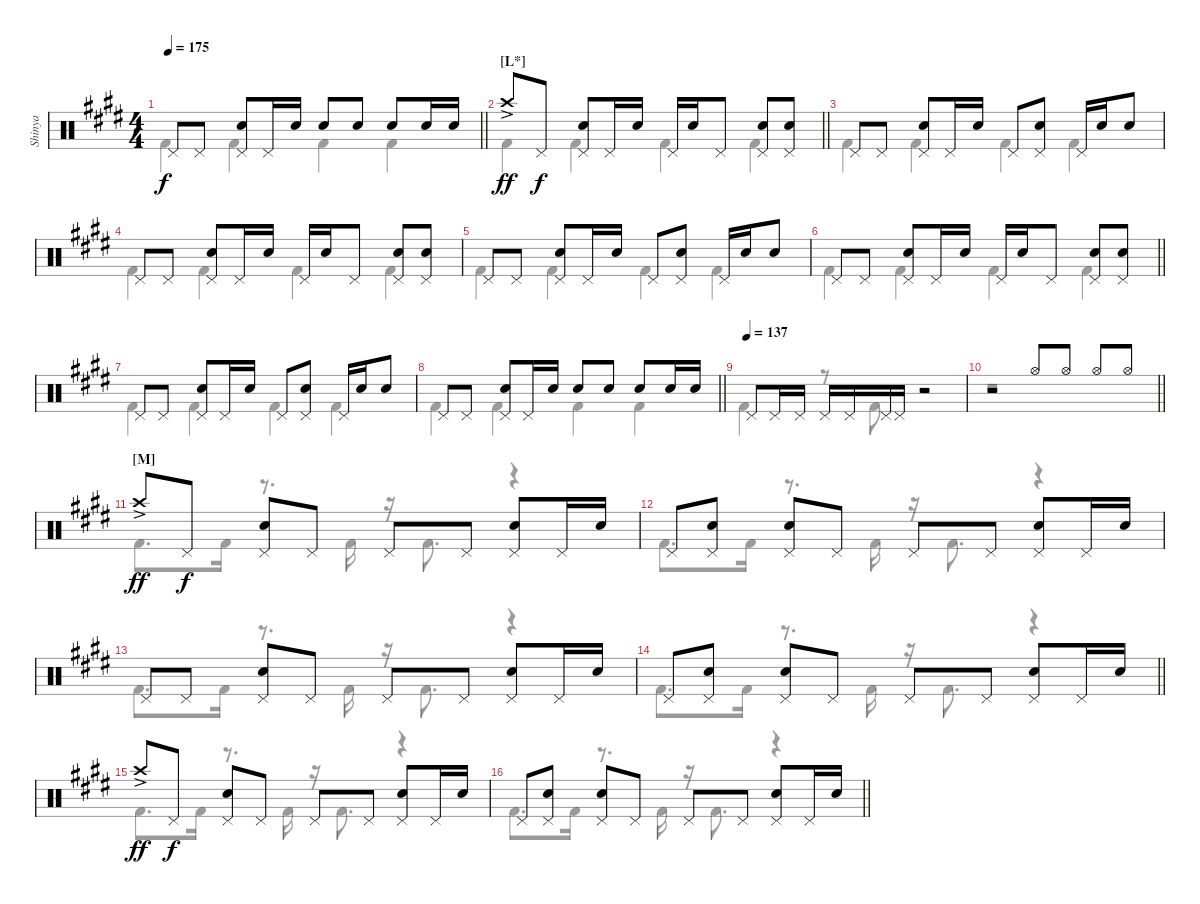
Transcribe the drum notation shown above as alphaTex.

\track ("Shinya" "Shinya") {instrument percussion}
\staff {score}
\articulation defaults
\voice
\ts (4 4)
\tempo 175
\clef neutral
\barLineRight lightlight
\ks c#minor "Pedal Hi-Hat (hit)".8{dy f} "Pedal Hi-Hat (hit)".8
("Pedal Hi-Hat (hit)" "Snare (hit) 2").8 "Pedal Hi-Hat (hit)".16 "Snare (hit) 2".16 "Snare (hit) 2".8 "Snare (hit) 2".8 "Snare (hit) 2".8 "Snare (hit) 2".16 "Snare (hit) 2".16 |
\section ("" "[L*]")
\barLineRight lightlight "Crash high (hit)"{ac}.8{dy ff} "Pedal Hi-Hat (hit)".8{dy f}
("Pedal Hi-Hat (hit)" "Snare (hit) 2").8 "Pedal Hi-Hat (hit)".16 "Snare (hit) 2".16 "Pedal Hi-Hat (hit)".16 "Snare (hit) 2".16 "Pedal Hi-Hat (hit)".8 ("Pedal Hi-Hat (hit)" "Snare (hit) 2").8 ("Pedal Hi-Hat (hit)" "Snare (hit) 2").8 |
"Pedal Hi-Hat (hit)".8 "Pedal Hi-Hat (hit)".8 ("Pedal Hi-Hat (hit)" "Snare (hit) 2").8 "Pedal Hi-Hat (hit)".16 "Snare (hit) 2".16 "Pedal Hi-Hat (hit)".8 ("Pedal Hi-Hat (hit)" "Snare (hit) 2").8 "Pedal Hi-Hat (hit)".16 "Snare (hit) 2".16 "Snare (hit) 2".8 |
"Pedal Hi-Hat (hit)".8 "Pedal Hi-Hat (hit)".8 ("Pedal Hi-Hat (hit)" "Snare (hit) 2").8 "Pedal Hi-Hat (hit)".16 "Snare (hit) 2".16 "Pedal Hi-Hat (hit)".16 "Snare (hit) 2".16 "Pedal Hi-Hat (hit)".8 ("Pedal Hi-Hat (hit)" "Snare (hit) 2").8 ("Pedal Hi-Hat (hit)" "Snare (hit) 2").8 |
"Pedal Hi-Hat (hit)".8 "Pedal Hi-Hat (hit)".8 ("Pedal Hi-Hat (hit)" "Snare (hit) 2").8 "Pedal Hi-Hat (hit)".16 "Snare (hit) 2".16 "Pedal Hi-Hat (hit)".8 ("Pedal Hi-Hat (hit)" "Snare (hit) 2").8 "Pedal Hi-Hat (hit)".16 "Snare (hit) 2".16 "Snare (hit) 2".8 |
\barLineRight lightlight "Pedal Hi-Hat (hit)".8 "Pedal Hi-Hat (hit)".8
("Pedal Hi-Hat (hit)" "Snare (hit) 2").8 "Pedal Hi-Hat (hit)".16 "Snare (hit) 2".16 "Pedal Hi-Hat (hit)".16 "Snare (hit) 2".16 "Pedal Hi-Hat (hit)".8 ("Pedal Hi-Hat (hit)" "Snare (hit) 2").8 ("Pedal Hi-Hat (hit)" "Snare (hit) 2").8 |
"Pedal Hi-Hat (hit)".8 "Pedal Hi-Hat (hit)".8 ("Pedal Hi-Hat (hit)" "Snare (hit) 2").8 "Pedal Hi-Hat (hit)".16 "Snare (hit) 2".16 "Pedal Hi-Hat (hit)".8 ("Pedal Hi-Hat (hit)" "Snare (hit) 2").8 "Pedal Hi-Hat (hit)".16 "Snare (hit) 2".16 "Snare (hit) 2".8 |
\barLineRight lightlight "Pedal Hi-Hat (hit)".8 "Pedal Hi-Hat (hit)".8
("Pedal Hi-Hat (hit)" "Snare (hit) 2").8 "Pedal Hi-Hat (hit)".16 "Snare (hit) 2".16 "Snare (hit) 2".8 "Snare (hit) 2".8 "Snare (hit) 2".8 "Snare (hit) 2".16 "Snare (hit) 2".16 |
\tempo (137)
"Pedal Hi-Hat (hit)".8 "Pedal Hi-Hat (hit)".16 "Pedal Hi-Hat (hit)".16 "Pedal Hi-Hat (hit)".16 "Pedal Hi-Hat (hit)".16 "Pedal Hi-Hat (hit)".16 "Pedal Hi-Hat (hit)".16 r.2 |
\barLineRight lightlight
r.2 "Hi-Hat (open)".8 "Hi-Hat (open)".8 "Hi-Hat (open)".8 "Hi-Hat (open)".8 |
\section ("" "[M]")
"Crash high (hit)"{ac}.8{dy ff} "Pedal Hi-Hat (hit)".8{dy f} ("Pedal Hi-Hat (hit)" "Snare (hit) 2").8 "Pedal Hi-Hat (hit)".8 "Pedal Hi-Hat (hit)".8 "Pedal Hi-Hat (hit)".8 ("Pedal Hi-Hat (hit)" "Snare (hit) 2").8 "Pedal Hi-Hat (hit)".16 "Snare (hit) 2".16 |
"Pedal Hi-Hat (hit)".8 ("Pedal Hi-Hat (hit)" "Snare (hit) 2").8 ("Pedal Hi-Hat (hit)" "Snare (hit) 2").8 "Pedal Hi-Hat (hit)".8 "Pedal Hi-Hat (hit)".8 "Pedal Hi-Hat (hit)".8 ("Pedal Hi-Hat (hit)" "Snare (hit) 2").8 "Pedal Hi-Hat (hit)".16 "Snare (hit) 2".16 |
"Pedal Hi-Hat (hit)".8 "Pedal Hi-Hat (hit)".8 ("Pedal Hi-Hat (hit)" "Snare (hit) 2").8 "Pedal Hi-Hat (hit)".8 "Pedal Hi-Hat (hit)".8 "Pedal Hi-Hat (hit)".8 ("Pedal Hi-Hat (hit)" "Snare (hit) 2").8 "Pedal Hi-Hat (hit)".16 "Snare (hit) 2".16 |
\barLineRight lightlight "Pedal Hi-Hat (hit)".8
("Pedal Hi-Hat (hit)" "Snare (hit) 2").8 ("Pedal Hi-Hat (hit)" "Snare (hit) 2").8 "Pedal Hi-Hat (hit)".8 "Pedal Hi-Hat (hit)".8 "Pedal Hi-Hat (hit)".8 ("Pedal Hi-Hat (hit)" "Snare (hit) 2").8 "Pedal Hi-Hat (hit)".16 "Snare (hit) 2".16 |
"Crash high (hit)"{ac}.8{dy ff} "Pedal Hi-Hat (hit)".8{dy f} ("Pedal Hi-Hat (hit)" "Snare (hit) 2").8 "Pedal Hi-Hat (hit)".8 "Pedal Hi-Hat (hit)".8 "Pedal Hi-Hat (hit)".8 ("Pedal Hi-Hat (hit)" "Snare (hit) 2").8 "Pedal Hi-Hat (hit)".16 "Snare (hit) 2".16 |
\barLineRight lightlight "Pedal Hi-Hat (hit)".8
("Pedal Hi-Hat (hit)" "Snare (hit) 2").8 ("Pedal Hi-Hat (hit)" "Snare (hit) 2").8 "Pedal Hi-Hat (hit)".8 "Pedal Hi-Hat (hit)".8 "Pedal Hi-Hat (hit)".8 ("Pedal Hi-Hat (hit)" "Snare (hit) 2").8 "Pedal Hi-Hat (hit)".16 "Snare (hit) 2".16
\voice
\clef neutral
\ottava regular
\simile none
\barLineRight lightlight
\ks c#minor "Kick (hit) 2".4{dy f} "Kick (hit) 2".4 "Kick (hit) 2".4 "Kick (hit) 2".4
|
\barLineRight lightlight "Kick (hit) 2".4 "Kick (hit) 2".4 "Kick (hit) 2".4 "Kick (hit) 2".4
|
"Kick (hit) 2".4 "Kick (hit) 2".4 "Kick (hit) 2".4 "Kick (hit) 2".4 |
"Kick (hit) 2".4 "Kick (hit) 2".4 "Kick (hit) 2".4 "Kick (hit) 2".4 |
"Kick (hit) 2".4 "Kick (hit) 2".4 "Kick (hit) 2".4 "Kick (hit) 2".4 |
\barLineRight lightlight "Kick (hit) 2".4 "Kick (hit) 2".4 "Kick (hit) 2".4 "Kick (hit) 2".4
|
"Kick (hit) 2".4 "Kick (hit) 2".4 "Kick (hit) 2".4 "Kick (hit) 2".4 |
\barLineRight lightlight "Kick (hit) 2".4 "Kick (hit) 2".4 "Kick (hit) 2".4 "Kick (hit) 2".4
|
"Kick (hit) 2".4 r.8 "Kick (hit) 2".8 r.2 |
\barLineRight lightlight
r.1 |
"Kick (hit) 2".8{d} "Kick (hit) 2".16 r.8{d} "Kick (hit) 2".16 r.16 "Kick (hit) 2".8{d} r.4 |
"Kick (hit) 2".8{d} "Kick (hit) 2".16 r.8{d} "Kick (hit) 2".16 r.16 "Kick (hit) 2".8{d} r.4 |
"Kick (hit) 2".8{d} "Kick (hit) 2".16 r.8{d} "Kick (hit) 2".16 r.16 "Kick (hit) 2".8{d} r.4 |
\barLineRight lightlight "Kick (hit) 2".8{d} "Kick (hit) 2".16
r.8{d} "Kick (hit) 2".16 r.16 "Kick (hit) 2".8{d} r.4 |
"Kick (hit) 2".8{d} "Kick (hit) 2".16 r.8{d} "Kick (hit) 2".16 r.16 "Kick (hit) 2".8{d} r.4 |
\barLineRight lightlight "Kick (hit) 2".8{d} "Kick (hit) 2".16
r.8{d} "Kick (hit) 2".16 r.16 "Kick (hit) 2".8{d} r.4
